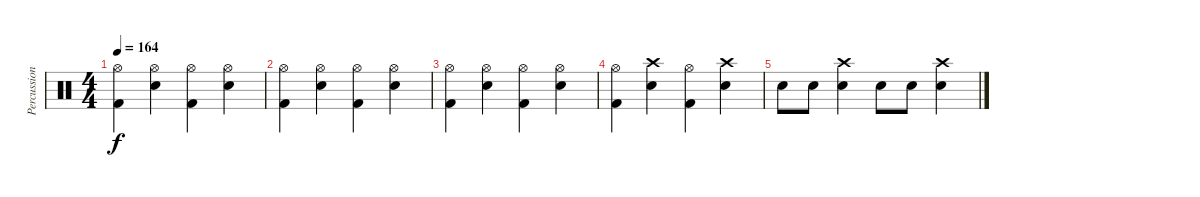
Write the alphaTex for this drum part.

\track ("Percussions" "Percussion") {instrument percussion}
\staff {score}
\articulation defaults
\ts (4 4)
\tempo 164
\clef neutral
\ks c
("Hi-Hat (open)" "Kick (hit) 2").4{dy f} ("Hi-Hat (open)" "Snare (hit) 2").4 ("Hi-Hat (open)" "Kick (hit) 2").4 ("Hi-Hat (open)" "Snare (hit) 2").4 |
("Hi-Hat (open)" "Kick (hit) 2").4 ("Hi-Hat (open)" "Snare (hit) 2").4 ("Hi-Hat (open)" "Kick (hit) 2").4 ("Hi-Hat (open)" "Snare (hit) 2").4 |
("Hi-Hat (open)" "Kick (hit) 2").4 ("Hi-Hat (open)" "Snare (hit) 2").4 ("Hi-Hat (open)" "Kick (hit) 2").4 ("Hi-Hat (open)" "Snare (hit) 2").4 |
("Hi-Hat (open)" "Kick (hit) 2").4 ("Crash high (hit)" "Snare (hit) 2").4 ("Hi-Hat (open)" "Kick (hit) 2").4 ("Crash high (hit)" "Snare (hit) 2").4 |
"Snare (hit) 2".8 "Snare (hit) 2".8 ("Crash high (hit)" "Snare (hit) 2").4 "Snare (hit) 2".8 "Snare (hit) 2".8 ("Crash high (hit)" "Snare (hit) 2").4
